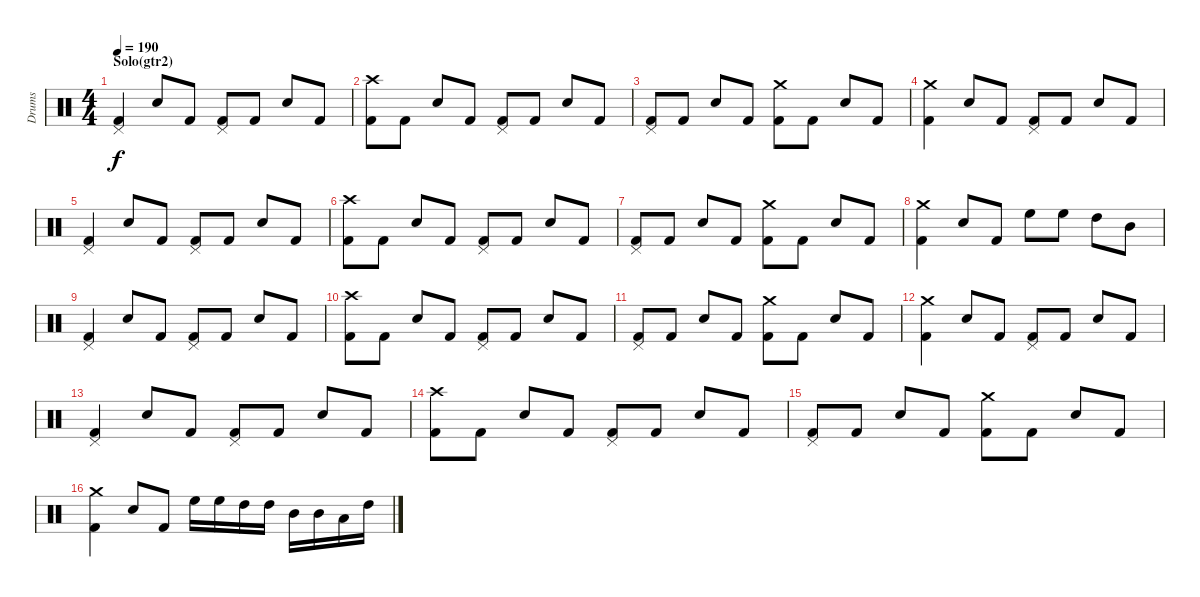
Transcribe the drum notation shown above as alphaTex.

\track ("Drums" "Drums") {instrument percussion}
\staff {score}
\articulation defaults
\ts (4 4)
\section ("" "Solo(gtr2)")
\tempo 190
\clef neutral
\ks c
("Pedal Hi-Hat (hit)" "Kick (hit) 2").4{dy f} "Electric Snare (hit)".8 "Kick (hit) 2".8 ("Pedal Hi-Hat (hit)" "Kick (hit) 2").8 "Kick (hit) 2".8 "Electric Snare (hit)".8 "Kick (hit) 2".8 |
("Crash high (hit)" "Kick (hit) 2").8 "Kick (hit) 2".8 "Electric Snare (hit)".8 "Kick (hit) 2".8 ("Pedal Hi-Hat (hit)" "Kick (hit) 2").8 "Kick (hit) 2".8 "Electric Snare (hit)".8 "Kick (hit) 2".8 |
("Pedal Hi-Hat (hit)" "Kick (hit) 2").8 "Kick (hit) 2".8 "Electric Snare (hit)".8 "Kick (hit) 2".8 ("Crash medium (hit)" "Kick (hit) 2").8 "Kick (hit) 2".8 "Electric Snare (hit)".8 "Kick (hit) 2".8 |
("Crash medium (hit)" "Kick (hit) 2").4 "Electric Snare (hit)".8 "Kick (hit) 2".8 ("Pedal Hi-Hat (hit)" "Kick (hit) 2").8 "Kick (hit) 2".8 "Electric Snare (hit)".8 "Kick (hit) 2".8 |
("Pedal Hi-Hat (hit)" "Kick (hit) 2").4 "Electric Snare (hit)".8 "Kick (hit) 2".8 ("Pedal Hi-Hat (hit)" "Kick (hit) 2").8 "Kick (hit) 2".8 "Electric Snare (hit)".8 "Kick (hit) 2".8 |
("Crash high (hit)" "Kick (hit) 2").8 "Kick (hit) 2".8 "Electric Snare (hit)".8 "Kick (hit) 2".8 ("Pedal Hi-Hat (hit)" "Kick (hit) 2").8 "Kick (hit) 2".8 "Electric Snare (hit)".8 "Kick (hit) 2".8 |
("Pedal Hi-Hat (hit)" "Kick (hit) 2").8 "Kick (hit) 2".8 "Electric Snare (hit)".8 "Kick (hit) 2".8 ("Crash medium (hit)" "Kick (hit) 2").8 "Kick (hit) 2".8 "Electric Snare (hit)".8 "Kick (hit) 2".8 |
("Crash medium (hit)" "Kick (hit) 2").4 "Electric Snare (hit)".8 "Kick (hit) 2".8 "High Floor Tom (hit)".8 "High Floor Tom (hit)".8 "High Tom (hit)".8 "Mid Tom (hit)".8 |
("Pedal Hi-Hat (hit)" "Kick (hit) 2").4 "Electric Snare (hit)".8 "Kick (hit) 2".8 ("Pedal Hi-Hat (hit)" "Kick (hit) 2").8 "Kick (hit) 2".8 "Electric Snare (hit)".8 "Kick (hit) 2".8 |
("Crash high (hit)" "Kick (hit) 2").8 "Kick (hit) 2".8 "Electric Snare (hit)".8 "Kick (hit) 2".8 ("Pedal Hi-Hat (hit)" "Kick (hit) 2").8 "Kick (hit) 2".8 "Electric Snare (hit)".8 "Kick (hit) 2".8 |
("Pedal Hi-Hat (hit)" "Kick (hit) 2").8 "Kick (hit) 2".8 "Electric Snare (hit)".8 "Kick (hit) 2".8 ("Crash medium (hit)" "Kick (hit) 2").8 "Kick (hit) 2".8 "Electric Snare (hit)".8 "Kick (hit) 2".8 |
("Crash medium (hit)" "Kick (hit) 2").4 "Electric Snare (hit)".8 "Kick (hit) 2".8 ("Pedal Hi-Hat (hit)" "Kick (hit) 2").8 "Kick (hit) 2".8 "Electric Snare (hit)".8 "Kick (hit) 2".8 |
("Pedal Hi-Hat (hit)" "Kick (hit) 2").4 "Electric Snare (hit)".8 "Kick (hit) 2".8 ("Pedal Hi-Hat (hit)" "Kick (hit) 2").8 "Kick (hit) 2".8 "Electric Snare (hit)".8 "Kick (hit) 2".8 |
("Crash high (hit)" "Kick (hit) 2").8 "Kick (hit) 2".8 "Electric Snare (hit)".8 "Kick (hit) 2".8 ("Pedal Hi-Hat (hit)" "Kick (hit) 2").8 "Kick (hit) 2".8 "Electric Snare (hit)".8 "Kick (hit) 2".8 |
("Pedal Hi-Hat (hit)" "Kick (hit) 2").8 "Kick (hit) 2".8 "Electric Snare (hit)".8 "Kick (hit) 2".8 ("Crash medium (hit)" "Kick (hit) 2").8 "Kick (hit) 2".8 "Electric Snare (hit)".8 "Kick (hit) 2".8 |
("Crash medium (hit)" "Kick (hit) 2").4 "Electric Snare (hit)".8 "Kick (hit) 2".8 "High Floor Tom (hit)".16 "High Floor Tom (hit)".16 "High Tom (hit)".16 "High Tom (hit)".16 "Mid Tom (hit)".16 "Mid Tom (hit)".16 "Low Tom (hit)".16 "High Tom (hit)".16
